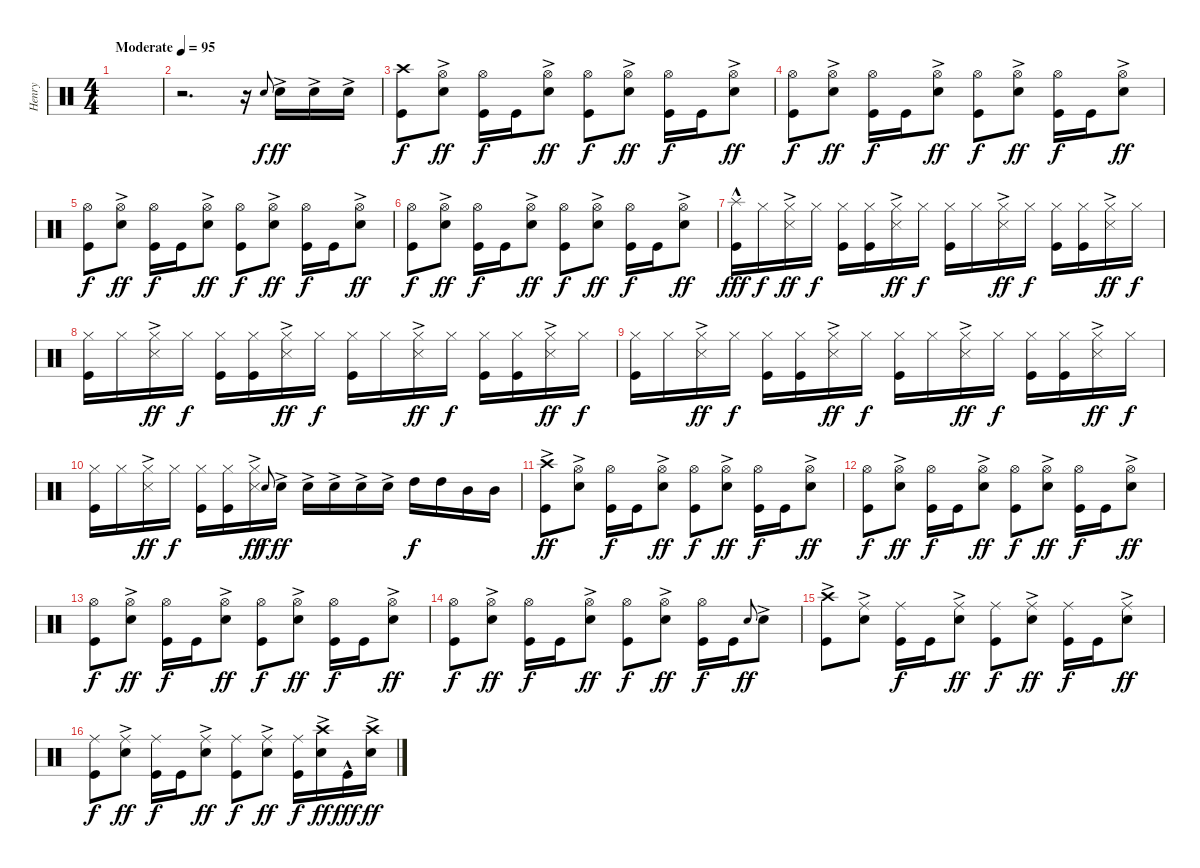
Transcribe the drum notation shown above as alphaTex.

\track ("Henry" "Henry") {instrument percussion}
\staff {score}
\articulation defaults
\ts (4 4)
\tempo (95 "Moderate")
\clef neutral
\ks c
|
r.2{d} r.16 "Snare (hit) 2".8{gr onbeat} "Snare (hit) 2"{ac}.16{dy ff} "Snare (hit) 2"{ac}.16 "Snare (hit) 2"{ac}.16 |
("Crash high (hit)" "Kick (hit)").8{dy f} ("Hi-Hat (open)" "Snare (hit) 2"{ac}).8{dy ff} ("Hi-Hat (open)" "Kick (hit)").16{dy f} "Kick (hit)".16 ("Hi-Hat (open)" "Snare (hit) 2"{ac}).8{dy ff} ("Hi-Hat (open)" "Kick (hit)").8{dy f} ("Hi-Hat (open)" "Snare (hit) 2"{ac}).8{dy ff} ("Hi-Hat (open)" "Kick (hit)").16{dy f} "Kick (hit)".16 ("Hi-Hat (open)" "Snare (hit) 2"{ac}).8{dy ff} |
("Hi-Hat (open)" "Kick (hit)").8{dy f} ("Hi-Hat (open)" "Snare (hit) 2"{ac}).8{dy ff} ("Hi-Hat (open)" "Kick (hit)").16{dy f} "Kick (hit)".16 ("Hi-Hat (open)" "Snare (hit) 2"{ac}).8{dy ff} ("Hi-Hat (open)" "Kick (hit)").8{dy f} ("Hi-Hat (open)" "Snare (hit) 2"{ac}).8{dy ff} ("Hi-Hat (open)" "Kick (hit)").16{dy f} "Kick (hit)".16 ("Hi-Hat (open)" "Snare (hit) 2"{ac}).8{dy ff} |
("Hi-Hat (open)" "Kick (hit)").8{dy f} ("Hi-Hat (open)" "Snare (hit) 2"{ac}).8{dy ff} ("Hi-Hat (open)" "Kick (hit)").16{dy f} "Kick (hit)".16 ("Hi-Hat (open)" "Snare (hit) 2"{ac}).8{dy ff} ("Hi-Hat (open)" "Kick (hit)").8{dy f} ("Hi-Hat (open)" "Snare (hit) 2"{ac}).8{dy ff} ("Hi-Hat (open)" "Kick (hit)").16{dy f} "Kick (hit)".16 ("Hi-Hat (open)" "Snare (hit) 2"{ac}).8{dy ff} |
("Hi-Hat (open)" "Kick (hit)").8{dy f} ("Hi-Hat (open)" "Snare (hit) 2"{ac}).8{dy ff} ("Hi-Hat (open)" "Kick (hit)").16{dy f} "Kick (hit)".16 ("Hi-Hat (open)" "Snare (hit) 2"{ac}).8{dy ff} ("Hi-Hat (open)" "Kick (hit)").8{dy f} ("Hi-Hat (open)" "Snare (hit) 2"{ac}).8{dy ff} ("Hi-Hat (open)" "Kick (hit)").16{dy f} "Kick (hit)".16 ("Hi-Hat (open)" "Snare (hit) 2"{ac}).8{dy ff} |
("Splash (hit)"{hac} "Kick (hit)").16{dy fff} "Hi-Hat (closed)".16{dy f} ("Hi-Hat (closed)" "Snare (side stick) 3"{ac}).16{dy ff} "Hi-Hat (closed)".16{dy f} ("Hi-Hat (closed)" "Kick (hit)").16 ("Hi-Hat (closed)" "Kick (hit)").16 ("Hi-Hat (closed)" "Snare (side stick) 3"{ac}).16{dy ff} "Hi-Hat (closed)".16{dy f} ("Hi-Hat (closed)" "Kick (hit)").16 "Hi-Hat (closed)".16 ("Hi-Hat (closed)" "Snare (side stick) 3"{ac}).16{dy ff} "Hi-Hat (closed)".16{dy f} ("Hi-Hat (closed)" "Kick (hit)").16 ("Hi-Hat (closed)" "Kick (hit)").16 ("Hi-Hat (closed)" "Snare (side stick) 3"{ac}).16{dy ff} "Hi-Hat (closed)".16{dy f} |
("Hi-Hat (closed)" "Kick (hit)").16 "Hi-Hat (closed)".16 ("Hi-Hat (closed)" "Snare (side stick) 3"{ac}).16{dy ff} "Hi-Hat (closed)".16{dy f} ("Hi-Hat (closed)" "Kick (hit)").16 ("Hi-Hat (closed)" "Kick (hit)").16 ("Hi-Hat (closed)" "Snare (side stick) 3"{ac}).16{dy ff} "Hi-Hat (closed)".16{dy f} ("Hi-Hat (closed)" "Kick (hit)").16 "Hi-Hat (closed)".16 ("Hi-Hat (closed)" "Snare (side stick) 3"{ac}).16{dy ff} "Hi-Hat (closed)".16{dy f} ("Hi-Hat (closed)" "Kick (hit)").16 ("Hi-Hat (closed)" "Kick (hit)").16 ("Hi-Hat (closed)" "Snare (side stick) 3"{ac}).16{dy ff} "Hi-Hat (closed)".16{dy f} |
("Hi-Hat (closed)" "Kick (hit)").16 "Hi-Hat (closed)".16 ("Hi-Hat (closed)" "Snare (side stick) 3"{ac}).16{dy ff} "Hi-Hat (closed)".16{dy f} ("Hi-Hat (closed)" "Kick (hit)").16 ("Hi-Hat (closed)" "Kick (hit)").16 ("Hi-Hat (closed)" "Snare (side stick) 3"{ac}).16{dy ff} "Hi-Hat (closed)".16{dy f} ("Hi-Hat (closed)" "Kick (hit)").16 "Hi-Hat (closed)".16 ("Hi-Hat (closed)" "Snare (side stick) 3"{ac}).16{dy ff} "Hi-Hat (closed)".16{dy f} ("Hi-Hat (closed)" "Kick (hit)").16 ("Hi-Hat (closed)" "Kick (hit)").16 ("Hi-Hat (closed)" "Snare (side stick) 3"{ac}).16{dy ff} "Hi-Hat (closed)".16{dy f} |
("Hi-Hat (closed)" "Kick (hit)").16 "Hi-Hat (closed)".16 ("Hi-Hat (closed)" "Snare (side stick) 3"{ac}).16{dy ff} "Hi-Hat (closed)".16{dy f} ("Hi-Hat (closed)" "Kick (hit)").16 ("Hi-Hat (closed)" "Kick (hit)").16 ("Hi-Hat (closed)" "Snare (side stick) 3"{ac}).16{dy ff} "Snare (hit) 2".8{gr onbeat dy f} "Snare (hit) 2"{ac}.16{dy ff} "Snare (hit) 2"{ac}.16 "Snare (hit) 2"{ac}.16 "Snare (hit) 2"{ac}.16 "Snare (hit) 2"{ac}.16 "High Tom (hit)".16{dy f} "High Tom (hit)".16 "Mid Tom (hit)".16 "Mid Tom (hit)".16 |
("Crash high (hit)"{ac} "Kick (hit)"{ac}).8{dy ff} ("Hi-Hat (open)" "Snare (hit) 2"{ac}).8 ("Hi-Hat (open)" "Kick (hit)").16{dy f} "Kick (hit)".16 ("Hi-Hat (open)" "Snare (hit) 2"{ac}).8{dy ff} ("Hi-Hat (open)" "Kick (hit)").8{dy f} ("Hi-Hat (open)" "Snare (hit) 2"{ac}).8{dy ff} ("Hi-Hat (open)" "Kick (hit)").16{dy f} "Kick (hit)".16 ("Hi-Hat (open)" "Snare (hit) 2"{ac}).8{dy ff} |
("Hi-Hat (open)" "Kick (hit)").8{dy f} ("Hi-Hat (open)" "Snare (hit) 2"{ac}).8{dy ff} ("Hi-Hat (open)" "Kick (hit)").16{dy f} "Kick (hit)".16 ("Hi-Hat (open)" "Snare (hit) 2"{ac}).8{dy ff} ("Hi-Hat (open)" "Kick (hit)").8{dy f} ("Hi-Hat (open)" "Snare (hit) 2"{ac}).8{dy ff} ("Hi-Hat (open)" "Kick (hit)").16{dy f} "Kick (hit)".16 ("Hi-Hat (open)" "Snare (hit) 2"{ac}).8{dy ff} |
("Hi-Hat (open)" "Kick (hit)").8{dy f} ("Hi-Hat (open)" "Snare (hit) 2"{ac}).8{dy ff} ("Hi-Hat (open)" "Kick (hit)").16{dy f} "Kick (hit)".16 ("Hi-Hat (open)" "Snare (hit) 2"{ac}).8{dy ff} ("Hi-Hat (open)" "Kick (hit)").8{dy f} ("Hi-Hat (open)" "Snare (hit) 2"{ac}).8{dy ff} ("Hi-Hat (open)" "Kick (hit)").16{dy f} "Kick (hit)".16 ("Hi-Hat (open)" "Snare (hit) 2"{ac}).8{dy ff} |
("Hi-Hat (open)" "Kick (hit)").8{dy f} ("Hi-Hat (open)" "Snare (hit) 2"{ac}).8{dy ff} ("Hi-Hat (open)" "Kick (hit)").16{dy f} "Kick (hit)".16 ("Hi-Hat (open)" "Snare (hit) 2"{ac}).8{dy ff} ("Hi-Hat (open)" "Kick (hit)").8{dy f} ("Hi-Hat (open)" "Snare (hit) 2"{ac}).8{dy ff} ("Hi-Hat (open)" "Kick (hit)").16{dy f} "Kick (hit)".16 "Snare (hit) 2".8{gr onbeat dy ff} "Snare (hit) 2"{ac}.8 |
("Crash high (hit)"{ac} "Kick (hit)").8 ("Ride (middle)" "Snare (hit) 2"{ac}).8 ("Ride (middle)" "Kick (hit)").16{dy f} "Kick (hit)".16 ("Ride (middle)" "Snare (hit) 2"{ac}).8{dy ff} ("Ride (middle)" "Kick (hit)").8{dy f} ("Ride (middle)" "Snare (hit) 2"{ac}).8{dy ff} ("Ride (middle)" "Kick (hit)").16{dy f} "Kick (hit)".16 ("Ride (middle)" "Snare (hit) 2"{ac}).8{dy ff} |
("Ride (middle)" "Kick (hit)").8{dy f} ("Ride (middle)" "Snare (hit) 2"{ac}).8{dy ff} ("Ride (middle)" "Kick (hit)").16{dy f} "Kick (hit)".16 ("Ride (middle)" "Snare (hit) 2"{ac}).8{dy ff} ("Ride (middle)" "Kick (hit)").8{dy f} ("Ride (middle)" "Snare (hit) 2"{ac}).8{dy ff} ("Ride (middle)" "Kick (hit)").16{dy f} ("Crash high (hit)"{ac} "Snare (hit) 2"{ac}).16{dy ff} "Kick (hit)"{hac}.16{dy fff} ("Crash high (hit)"{ac} "Snare (hit) 2"{ac}).16{dy ff}
